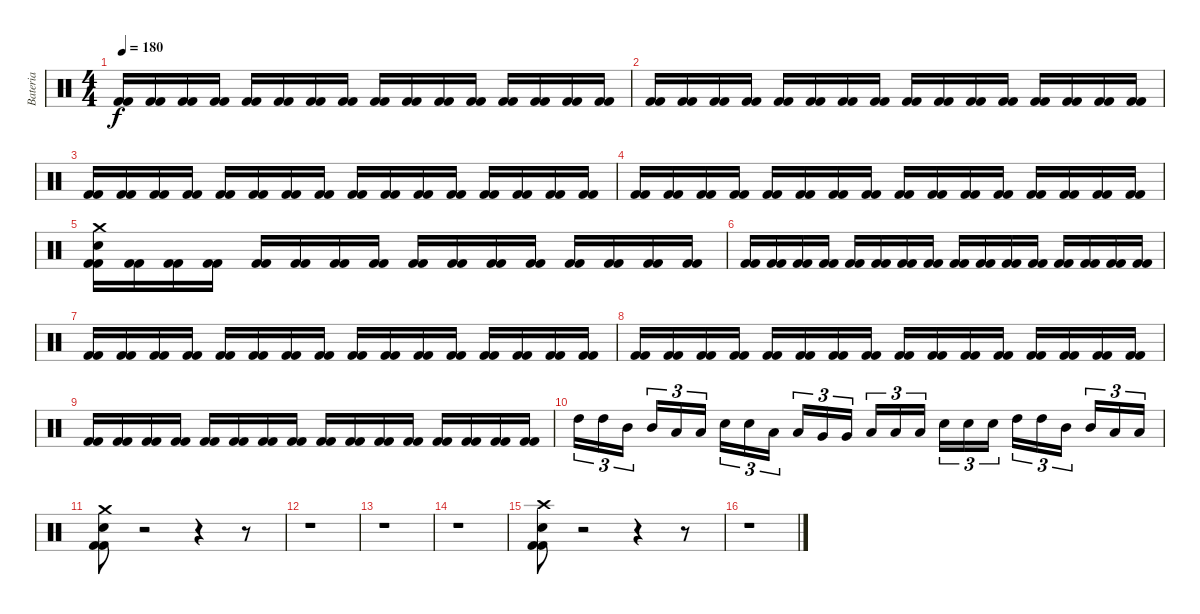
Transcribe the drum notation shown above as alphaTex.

\track ("Bateria" "Bateria") {instrument percussion}
\staff {score}
\articulation defaults
\ts (4 4)
\tempo 180
\clef neutral
\ks c
("Kick (hit) 2" "Kick (hit) 2").16{dy f} ("Kick (hit) 2" "Kick (hit) 2").16 ("Kick (hit) 2" "Kick (hit) 2").16 ("Kick (hit) 2" "Kick (hit) 2").16 ("Kick (hit) 2" "Kick (hit) 2").16 ("Kick (hit) 2" "Kick (hit) 2").16 ("Kick (hit) 2" "Kick (hit) 2").16 ("Kick (hit) 2" "Kick (hit) 2").16 ("Kick (hit) 2" "Kick (hit) 2").16 ("Kick (hit) 2" "Kick (hit) 2").16 ("Kick (hit) 2" "Kick (hit) 2").16 ("Kick (hit) 2" "Kick (hit) 2").16 ("Kick (hit) 2" "Kick (hit) 2").16 ("Kick (hit) 2" "Kick (hit) 2").16 ("Kick (hit) 2" "Kick (hit) 2").16 ("Kick (hit) 2" "Kick (hit) 2").16 |
("Kick (hit) 2" "Kick (hit) 2").16 ("Kick (hit) 2" "Kick (hit) 2").16 ("Kick (hit) 2" "Kick (hit) 2").16 ("Kick (hit) 2" "Kick (hit) 2").16 ("Kick (hit) 2" "Kick (hit) 2").16 ("Kick (hit) 2" "Kick (hit) 2").16 ("Kick (hit) 2" "Kick (hit) 2").16 ("Kick (hit) 2" "Kick (hit) 2").16 ("Kick (hit) 2" "Kick (hit) 2").16 ("Kick (hit) 2" "Kick (hit) 2").16 ("Kick (hit) 2" "Kick (hit) 2").16 ("Kick (hit) 2" "Kick (hit) 2").16 ("Kick (hit) 2" "Kick (hit) 2").16 ("Kick (hit) 2" "Kick (hit) 2").16 ("Kick (hit) 2" "Kick (hit) 2").16 ("Kick (hit) 2" "Kick (hit) 2").16 |
("Kick (hit) 2" "Kick (hit) 2").16 ("Kick (hit) 2" "Kick (hit) 2").16 ("Kick (hit) 2" "Kick (hit) 2").16 ("Kick (hit) 2" "Kick (hit) 2").16 ("Kick (hit) 2" "Kick (hit) 2").16 ("Kick (hit) 2" "Kick (hit) 2").16 ("Kick (hit) 2" "Kick (hit) 2").16 ("Kick (hit) 2" "Kick (hit) 2").16 ("Kick (hit) 2" "Kick (hit) 2").16 ("Kick (hit) 2" "Kick (hit) 2").16 ("Kick (hit) 2" "Kick (hit) 2").16 ("Kick (hit) 2" "Kick (hit) 2").16 ("Kick (hit) 2" "Kick (hit) 2").16 ("Kick (hit) 2" "Kick (hit) 2").16 ("Kick (hit) 2" "Kick (hit) 2").16 ("Kick (hit) 2" "Kick (hit) 2").16 |
("Kick (hit) 2" "Kick (hit) 2").16 ("Kick (hit) 2" "Kick (hit) 2").16 ("Kick (hit) 2" "Kick (hit) 2").16 ("Kick (hit) 2" "Kick (hit) 2").16 ("Kick (hit) 2" "Kick (hit) 2").16 ("Kick (hit) 2" "Kick (hit) 2").16 ("Kick (hit) 2" "Kick (hit) 2").16 ("Kick (hit) 2" "Kick (hit) 2").16 ("Kick (hit) 2" "Kick (hit) 2").16 ("Kick (hit) 2" "Kick (hit) 2").16 ("Kick (hit) 2" "Kick (hit) 2").16 ("Kick (hit) 2" "Kick (hit) 2").16 ("Kick (hit) 2" "Kick (hit) 2").16 ("Kick (hit) 2" "Kick (hit) 2").16 ("Kick (hit) 2" "Kick (hit) 2").16 ("Kick (hit) 2" "Kick (hit) 2").16 |
("Kick (hit) 2" "Kick (hit) 2" "Snare (hit) 2" "Crash medium (hit)").16 ("Kick (hit) 2" "Kick (hit) 2").16 ("Kick (hit) 2" "Kick (hit) 2").16 ("Kick (hit) 2" "Kick (hit) 2").16 ("Kick (hit) 2" "Kick (hit) 2").16 ("Kick (hit) 2" "Kick (hit) 2").16 ("Kick (hit) 2" "Kick (hit) 2").16 ("Kick (hit) 2" "Kick (hit) 2").16 ("Kick (hit) 2" "Kick (hit) 2").16 ("Kick (hit) 2" "Kick (hit) 2").16 ("Kick (hit) 2" "Kick (hit) 2").16 ("Kick (hit) 2" "Kick (hit) 2").16 ("Kick (hit) 2" "Kick (hit) 2").16 ("Kick (hit) 2" "Kick (hit) 2").16 ("Kick (hit) 2" "Kick (hit) 2").16 ("Kick (hit) 2" "Kick (hit) 2").16 |
("Kick (hit) 2" "Kick (hit) 2").16 ("Kick (hit) 2" "Kick (hit) 2").16 ("Kick (hit) 2" "Kick (hit) 2").16 ("Kick (hit) 2" "Kick (hit) 2").16 ("Kick (hit) 2" "Kick (hit) 2").16 ("Kick (hit) 2" "Kick (hit) 2").16 ("Kick (hit) 2" "Kick (hit) 2").16 ("Kick (hit) 2" "Kick (hit) 2").16 ("Kick (hit) 2" "Kick (hit) 2").16 ("Kick (hit) 2" "Kick (hit) 2").16 ("Kick (hit) 2" "Kick (hit) 2").16 ("Kick (hit) 2" "Kick (hit) 2").16 ("Kick (hit) 2" "Kick (hit) 2").16 ("Kick (hit) 2" "Kick (hit) 2").16 ("Kick (hit) 2" "Kick (hit) 2").16 ("Kick (hit) 2" "Kick (hit) 2").16 |
("Kick (hit) 2" "Kick (hit) 2").16 ("Kick (hit) 2" "Kick (hit) 2").16 ("Kick (hit) 2" "Kick (hit) 2").16 ("Kick (hit) 2" "Kick (hit) 2").16 ("Kick (hit) 2" "Kick (hit) 2").16 ("Kick (hit) 2" "Kick (hit) 2").16 ("Kick (hit) 2" "Kick (hit) 2").16 ("Kick (hit) 2" "Kick (hit) 2").16 ("Kick (hit) 2" "Kick (hit) 2").16 ("Kick (hit) 2" "Kick (hit) 2").16 ("Kick (hit) 2" "Kick (hit) 2").16 ("Kick (hit) 2" "Kick (hit) 2").16 ("Kick (hit) 2" "Kick (hit) 2").16 ("Kick (hit) 2" "Kick (hit) 2").16 ("Kick (hit) 2" "Kick (hit) 2").16 ("Kick (hit) 2" "Kick (hit) 2").16 |
("Kick (hit) 2" "Kick (hit) 2").16 ("Kick (hit) 2" "Kick (hit) 2").16 ("Kick (hit) 2" "Kick (hit) 2").16 ("Kick (hit) 2" "Kick (hit) 2").16 ("Kick (hit) 2" "Kick (hit) 2").16 ("Kick (hit) 2" "Kick (hit) 2").16 ("Kick (hit) 2" "Kick (hit) 2").16 ("Kick (hit) 2" "Kick (hit) 2").16 ("Kick (hit) 2" "Kick (hit) 2").16 ("Kick (hit) 2" "Kick (hit) 2").16 ("Kick (hit) 2" "Kick (hit) 2").16 ("Kick (hit) 2" "Kick (hit) 2").16 ("Kick (hit) 2" "Kick (hit) 2").16 ("Kick (hit) 2" "Kick (hit) 2").16 ("Kick (hit) 2" "Kick (hit) 2").16 ("Kick (hit) 2" "Kick (hit) 2").16 |
("Kick (hit) 2" "Kick (hit) 2").16 ("Kick (hit) 2" "Kick (hit) 2").16 ("Kick (hit) 2" "Kick (hit) 2").16 ("Kick (hit) 2" "Kick (hit) 2").16 ("Kick (hit) 2" "Kick (hit) 2").16 ("Kick (hit) 2" "Kick (hit) 2").16 ("Kick (hit) 2" "Kick (hit) 2").16 ("Kick (hit) 2" "Kick (hit) 2").16 ("Kick (hit) 2" "Kick (hit) 2").16 ("Kick (hit) 2" "Kick (hit) 2").16 ("Kick (hit) 2" "Kick (hit) 2").16 ("Kick (hit) 2" "Kick (hit) 2").16 ("Kick (hit) 2" "Kick (hit) 2").16 ("Kick (hit) 2" "Kick (hit) 2").16 ("Kick (hit) 2" "Kick (hit) 2").16 ("Kick (hit) 2" "Kick (hit) 2").16 |
"High Tom (hit)".16{tu (3 2)} "High Tom (hit)".16{tu (3 2)} "Mid Tom (hit)".16{tu (3 2)} "Mid Tom (hit)".16{tu (3 2)} "Low Tom (hit)".16{tu (3 2)} "Low Tom (hit)".16{tu (3 2)} "Electric Snare (hit)".16{tu (3 2)} "Electric Snare (hit)".16{tu (3 2)} "Low Tom (hit)".16{tu (3 2)} "Low Tom (hit)".16{tu (3 2)} "Very Low Tom (hit)".16{tu (3 2)} "Very Low Tom (hit)".16{tu (3 2)} "Low Floor Tom (hit)".16{tu (3 2)} "Low Floor Tom (hit)".16{tu (3 2)} "Low Floor Tom (hit)".16{tu (3 2)} "Electric Snare (hit)".16{tu (3 2)} "Electric Snare (hit)".16{tu (3 2)} "Electric Snare (hit)".16{tu (3 2)} "High Tom (hit)".16{tu (3 2)} "High Tom (hit)".16{tu (3 2)} "Mid Tom (hit)".16{tu (3 2)} "Mid Tom (hit)".16{tu (3 2)} "Low Tom (hit)".16{tu (3 2)} "Low Tom (hit)".16{tu (3 2)} |
("Kick (hit) 2" "Kick (hit) 2" "Snare (hit) 2" "Crash medium (hit)").8 r.2 r.4 r.8 |
r.1 |
r.1 |
r.1 |
("Kick (hit) 2" "Kick (hit) 2" "Snare (hit) 2" "Crash high (hit)").8 r.2 r.4 r.8 |
r.1
